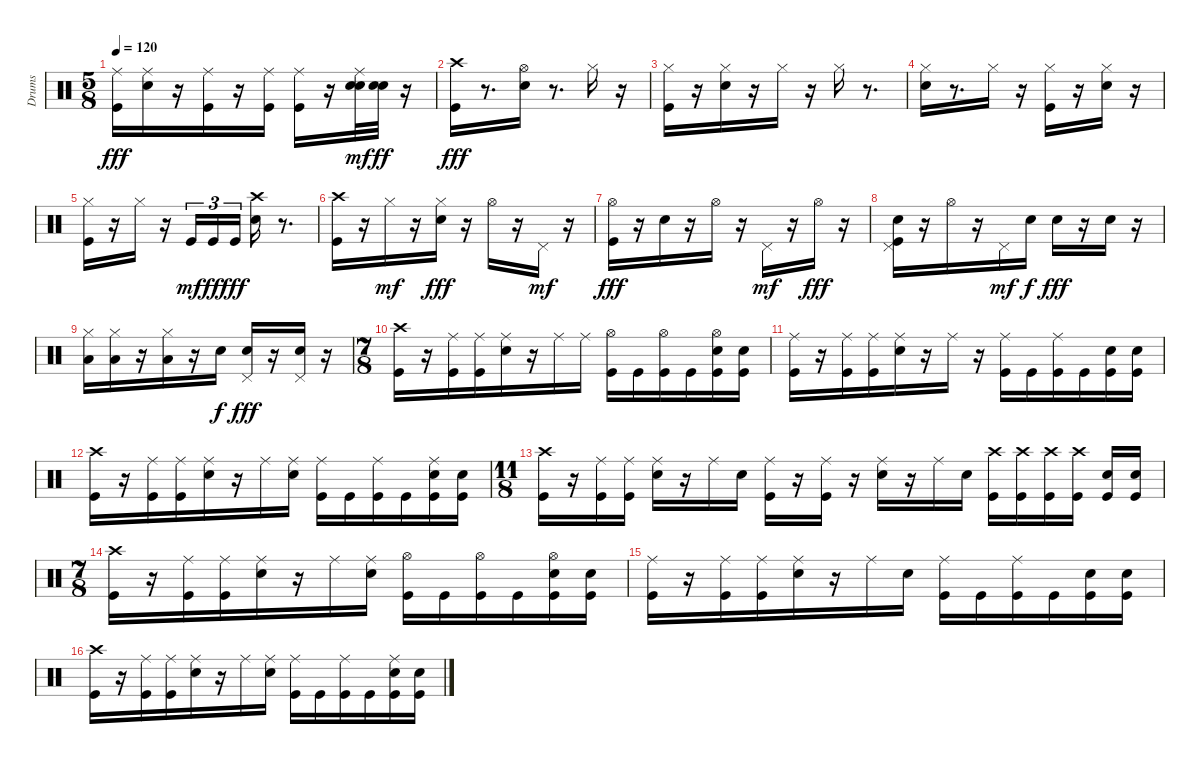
\track ("Drums" "Drums") {instrument percussion}
\staff {score}
\articulation defaults
\ts (5 8)
\tempo 120
\clef neutral
\ks c
("Kick (hit)" "Ride (middle)").16{dy fff} ("Snare (hit) 2" "Ride (middle)").16 r.16 ("Kick (hit)" "Ride (middle)").16 r.16 ("Kick (hit)" "Ride (middle)").16 ("Kick (hit)" "Ride (middle)").16 r.16 ("Snare (hit) 2" "Ride (middle)" "Snare (hit) 2").32{dy mf} ("Snare (hit) 2" "Snare (hit) 2").32{dy ff} r.16 |
("Crash high (hit)" "Kick (hit)").16{dy fff} r.8{d} ("Hi-Hat (open)" "Snare (hit) 2").16 r.8{d} "Hi-Hat (closed)".16 r.16 |
("Hi-Hat (closed)" "Kick (hit)").16 r.16 ("Hi-Hat (closed)" "Snare (hit) 2").16 r.16 "Hi-Hat (closed)".16 r.16 "Hi-Hat (closed)".16 r.8{d} |
("Hi-Hat (closed)" "Snare (hit) 2").16 r.8{d} "Hi-Hat (closed)".16 r.16 ("Hi-Hat (closed)" "Kick (hit)").16 r.16 ("Hi-Hat (closed)" "Snare (hit) 2").16 r.16 |
("Hi-Hat (closed)" "Kick (hit)").16 r.16 "Hi-Hat (closed)".16 r.16 "Kick (hit)".16{tu (3 2) dy mf} "Kick (hit)".16{tu (3 2) dy ff} "Kick (hit)".16{tu (3 2) dy fff} ("Crash high (hit)" "Snare (hit) 2").16 r.8{d} |
("Crash high (hit)" "Kick (hit)").16 r.16 "Hi-Hat (closed)".16{dy mf} r.16 ("Hi-Hat (closed)" "Snare (hit) 2").16{dy fff} r.16 "Hi-Hat (open)".16 r.16 "Pedal Hi-Hat (hit)".16{dy mf} r.16 |
("Hi-Hat (open)" "Kick (hit)").16{dy fff} r.16 "Snare (hit) 2".16 r.16 "Hi-Hat (open)".16 r.16 "Pedal Hi-Hat (hit)".16{dy mf} r.16 "Hi-Hat (open)".16{dy fff} r.16 |
("Pedal Hi-Hat (hit)" "Snare (hit) 2" "Kick (hit)").16 r.16 "Hi-Hat (open)".16 r.16 "Pedal Hi-Hat (hit)".16{dy mf} "Snare (hit) 2".16{dy f} "Snare (hit) 2".16{dy fff} r.16 "Snare (hit) 2".16 r.16 |
("Hi-Hat (closed)" "Low Tom (hit)").16 ("Hi-Hat (closed)" "Low Tom (hit)").16 r.16 ("Hi-Hat (closed)" "Low Tom (hit)").16 r.16 "Snare (hit) 2".16{dy f} ("Pedal Hi-Hat (hit)" "Snare (hit) 2").16{dy fff} r.16 ("Pedal Hi-Hat (hit)" "Snare (hit) 2").16 r.16 |
\ts (7 8)
("Crash high (hit)" "Kick (hit)").16 r.16 ("Ride (middle)" "Kick (hit)").16 ("Ride (middle)" "Kick (hit)").16 ("Ride (middle)" "Snare (hit) 2").16 r.16 "Ride (middle)".16 "Ride (middle)".16 ("Hi-Hat (open)" "Kick (hit)").16 "Kick (hit)".16 ("Hi-Hat (open)" "Kick (hit)").16 "Kick (hit)".16 ("Snare (hit) 2" "Hi-Hat (open)" "Kick (hit)").16 ("Snare (hit) 2" "Kick (hit)").16 |
("Ride (middle)" "Kick (hit)").16 r.16 ("Ride (middle)" "Kick (hit)").16 ("Ride (middle)" "Kick (hit)").16 ("Ride (middle)" "Snare (hit) 2").16 r.16 "Ride (middle)".16 r.16 ("Ride (middle)" "Kick (hit)").16 "Kick (hit)".16 ("Ride (middle)" "Kick (hit)").16 "Kick (hit)".16 ("Snare (hit) 2" "Kick (hit)").16 ("Snare (hit) 2" "Kick (hit)").16 |
("Crash high (hit)" "Kick (hit)").16 r.16 ("Ride (middle)" "Kick (hit)").16 ("Ride (middle)" "Kick (hit)").16 ("Ride (middle)" "Snare (hit) 2").16 r.16 "Ride (middle)".16 ("Ride (middle)" "Snare (hit) 2").16 ("Ride (middle)" "Kick (hit)").16 "Kick (hit)".16 ("Ride (middle)" "Kick (hit)").16 "Kick (hit)".16 ("Ride (middle)" "Kick (hit)" "Snare (hit) 2").16 ("Kick (hit)" "Snare (hit) 2").16 |
\ts (11 8)
("Crash high (hit)" "Kick (hit)").16 r.16 ("Ride (middle)" "Kick (hit)").16 ("Ride (middle)" "Kick (hit)").16 ("Ride (middle)" "Snare (hit) 2").16 r.16 "Ride (middle)".16 "Snare (hit) 2".16 ("Ride (middle)" "Kick (hit)").16 r.16 ("Ride (middle)" "Kick (hit)").16 r.16 ("Ride (middle)" "Snare (hit) 2").16 r.16 "Ride (middle)".16 "Snare (hit) 2".16 ("Crash high (hit)" "Kick (hit)").16 ("Crash high (hit)" "Kick (hit)").16 ("Crash high (hit)" "Kick (hit)").16 ("Crash high (hit)" "Kick (hit)").16 ("Snare (hit) 2" "Kick (hit)").16 ("Snare (hit) 2" "Kick (hit)").16 |
\ts (7 8)
("Kick (hit)" "Crash high (hit)").16 r.16 ("Kick (hit)" "Ride (middle)").16 ("Kick (hit)" "Ride (middle)").16 ("Snare (hit) 2" "Ride (middle)").16 r.16 "Ride (middle)".16 ("Snare (hit) 2" "Ride (middle)").16 ("Kick (hit)" "Hi-Hat (open)").16 "Kick (hit)".16 ("Kick (hit)" "Hi-Hat (open)").16 "Kick (hit)".16 ("Kick (hit)" "Hi-Hat (open)" "Snare (hit) 2").16 ("Kick (hit)" "Snare (hit) 2").16 |
("Kick (hit)" "Ride (middle)").16 r.16 ("Kick (hit)" "Ride (middle)").16 ("Kick (hit)" "Ride (middle)").16 ("Snare (hit) 2" "Ride (middle)").16 r.16 "Ride (middle)".16 "Snare (hit) 2".16 ("Kick (hit)" "Ride (middle)").16 "Kick (hit)".16 ("Kick (hit)" "Ride (middle)").16 "Kick (hit)".16 ("Kick (hit)" "Snare (hit) 2").16 ("Kick (hit)" "Snare (hit) 2").16 |
("Kick (hit)" "Crash high (hit)").16 r.16 ("Kick (hit)" "Ride (middle)").16 ("Kick (hit)" "Ride (middle)").16 ("Snare (hit) 2" "Ride (middle)").16 r.16 "Ride (middle)".16 ("Snare (hit) 2" "Ride (middle)").16 ("Kick (hit)" "Ride (middle)").16 "Kick (hit)".16 ("Kick (hit)" "Ride (middle)").16 "Kick (hit)".16 ("Snare (hit) 2" "Kick (hit)" "Ride (middle)").16 ("Snare (hit) 2" "Kick (hit)").16
